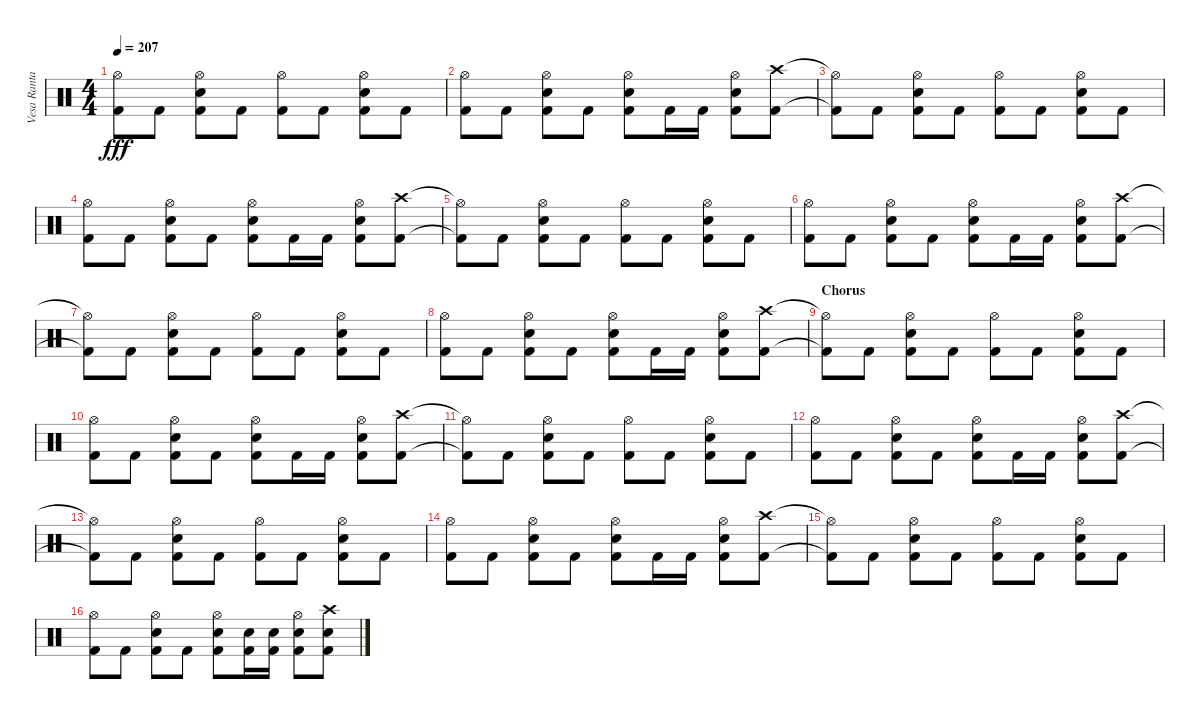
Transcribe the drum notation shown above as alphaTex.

\track ("Vesa Ranta" "Vesa Ranta") {instrument percussion}
\staff {score}
\articulation defaults
\ts (4 4)
\tempo 207
\clef neutral
\ks c
("Hi-Hat (open)"{t} "Kick (hit) 2"{t}).8{dy fff} "Kick (hit) 2".8 ("Hi-Hat (open)" "Snare (hit) 2" "Kick (hit) 2").8 "Kick (hit) 2".8 ("Hi-Hat (open)" "Kick (hit) 2").8 "Kick (hit) 2".8 ("Hi-Hat (open)" "Snare (hit) 2" "Kick (hit) 2").8 "Kick (hit) 2".8 |
("Hi-Hat (open)" "Kick (hit) 2").8 "Kick (hit) 2".8 ("Hi-Hat (open)" "Snare (hit) 2" "Kick (hit) 2").8 "Kick (hit) 2".8 ("Hi-Hat (open)" "Snare (hit) 2" "Kick (hit) 2").8 "Kick (hit) 2".16 "Kick (hit) 2".16 ("Hi-Hat (open)" "Snare (hit) 2" "Kick (hit) 2").8 ("Crash high (hit)" "Kick (hit) 2").8 |
("Hi-Hat (open)"{t} "Kick (hit) 2"{t}).8 "Kick (hit) 2".8 ("Hi-Hat (open)" "Snare (hit) 2" "Kick (hit) 2").8 "Kick (hit) 2".8 ("Hi-Hat (open)" "Kick (hit) 2").8 "Kick (hit) 2".8 ("Hi-Hat (open)" "Snare (hit) 2" "Kick (hit) 2").8 "Kick (hit) 2".8 |
("Hi-Hat (open)" "Kick (hit) 2").8 "Kick (hit) 2".8 ("Hi-Hat (open)" "Snare (hit) 2" "Kick (hit) 2").8 "Kick (hit) 2".8 ("Hi-Hat (open)" "Snare (hit) 2" "Kick (hit) 2").8 "Kick (hit) 2".16 "Kick (hit) 2".16 ("Hi-Hat (open)" "Snare (hit) 2" "Kick (hit) 2").8 ("Crash high (hit)" "Kick (hit) 2").8 |
("Hi-Hat (open)"{t} "Kick (hit) 2"{t}).8 "Kick (hit) 2".8 ("Hi-Hat (open)" "Snare (hit) 2" "Kick (hit) 2").8 "Kick (hit) 2".8 ("Hi-Hat (open)" "Kick (hit) 2").8 "Kick (hit) 2".8 ("Hi-Hat (open)" "Snare (hit) 2" "Kick (hit) 2").8 "Kick (hit) 2".8 |
("Hi-Hat (open)" "Kick (hit) 2").8 "Kick (hit) 2".8 ("Hi-Hat (open)" "Snare (hit) 2" "Kick (hit) 2").8 "Kick (hit) 2".8 ("Hi-Hat (open)" "Snare (hit) 2" "Kick (hit) 2").8 "Kick (hit) 2".16 "Kick (hit) 2".16 ("Hi-Hat (open)" "Snare (hit) 2" "Kick (hit) 2").8 ("Crash high (hit)" "Kick (hit) 2").8 |
("Hi-Hat (open)"{t} "Kick (hit) 2"{t}).8 "Kick (hit) 2".8 ("Hi-Hat (open)" "Snare (hit) 2" "Kick (hit) 2").8 "Kick (hit) 2".8 ("Hi-Hat (open)" "Kick (hit) 2").8 "Kick (hit) 2".8 ("Hi-Hat (open)" "Snare (hit) 2" "Kick (hit) 2").8 "Kick (hit) 2".8 |
("Hi-Hat (open)" "Kick (hit) 2").8 "Kick (hit) 2".8 ("Hi-Hat (open)" "Snare (hit) 2" "Kick (hit) 2").8 "Kick (hit) 2".8 ("Hi-Hat (open)" "Snare (hit) 2" "Kick (hit) 2").8 "Kick (hit) 2".16 "Kick (hit) 2".16 ("Hi-Hat (open)" "Snare (hit) 2" "Kick (hit) 2").8 ("Crash high (hit)" "Kick (hit) 2").8 |
\section ("" "Chorus")
("Hi-Hat (open)"{t} "Kick (hit) 2"{t}).8 "Kick (hit) 2".8 ("Hi-Hat (open)" "Snare (hit) 2" "Kick (hit) 2").8 "Kick (hit) 2".8 ("Hi-Hat (open)" "Kick (hit) 2").8 "Kick (hit) 2".8 ("Hi-Hat (open)" "Snare (hit) 2" "Kick (hit) 2").8 "Kick (hit) 2".8 |
("Hi-Hat (open)" "Kick (hit) 2").8 "Kick (hit) 2".8 ("Hi-Hat (open)" "Snare (hit) 2" "Kick (hit) 2").8 "Kick (hit) 2".8 ("Hi-Hat (open)" "Snare (hit) 2" "Kick (hit) 2").8 "Kick (hit) 2".16 "Kick (hit) 2".16 ("Hi-Hat (open)" "Snare (hit) 2" "Kick (hit) 2").8 ("Crash high (hit)" "Kick (hit) 2").8 |
("Hi-Hat (open)"{t} "Kick (hit) 2"{t}).8 "Kick (hit) 2".8 ("Hi-Hat (open)" "Snare (hit) 2" "Kick (hit) 2").8 "Kick (hit) 2".8 ("Hi-Hat (open)" "Kick (hit) 2").8 "Kick (hit) 2".8 ("Hi-Hat (open)" "Snare (hit) 2" "Kick (hit) 2").8 "Kick (hit) 2".8 |
("Hi-Hat (open)" "Kick (hit) 2").8 "Kick (hit) 2".8 ("Hi-Hat (open)" "Snare (hit) 2" "Kick (hit) 2").8 "Kick (hit) 2".8 ("Hi-Hat (open)" "Snare (hit) 2" "Kick (hit) 2").8 "Kick (hit) 2".16 "Kick (hit) 2".16 ("Hi-Hat (open)" "Snare (hit) 2" "Kick (hit) 2").8 ("Crash high (hit)" "Kick (hit) 2").8 |
("Hi-Hat (open)"{t} "Kick (hit) 2"{t}).8 "Kick (hit) 2".8 ("Hi-Hat (open)" "Snare (hit) 2" "Kick (hit) 2").8 "Kick (hit) 2".8 ("Hi-Hat (open)" "Kick (hit) 2").8 "Kick (hit) 2".8 ("Hi-Hat (open)" "Snare (hit) 2" "Kick (hit) 2").8 "Kick (hit) 2".8 |
("Hi-Hat (open)" "Kick (hit) 2").8 "Kick (hit) 2".8 ("Hi-Hat (open)" "Snare (hit) 2" "Kick (hit) 2").8 "Kick (hit) 2".8 ("Hi-Hat (open)" "Snare (hit) 2" "Kick (hit) 2").8 "Kick (hit) 2".16 "Kick (hit) 2".16 ("Hi-Hat (open)" "Snare (hit) 2" "Kick (hit) 2").8 ("Crash high (hit)" "Kick (hit) 2").8 |
("Hi-Hat (open)"{t} "Kick (hit) 2"{t}).8 "Kick (hit) 2".8 ("Hi-Hat (open)" "Snare (hit) 2" "Kick (hit) 2").8 "Kick (hit) 2".8 ("Hi-Hat (open)" "Kick (hit) 2").8 "Kick (hit) 2".8 ("Hi-Hat (open)" "Snare (hit) 2" "Kick (hit) 2").8 "Kick (hit) 2".8 |
("Hi-Hat (open)" "Kick (hit) 2").8 "Kick (hit) 2".8 ("Hi-Hat (open)" "Snare (hit) 2" "Kick (hit) 2").8 "Kick (hit) 2".8 ("Hi-Hat (open)" "Snare (hit) 2" "Kick (hit) 2").8 ("Snare (hit) 2" "Kick (hit) 2").16 ("Snare (hit) 2" "Kick (hit) 2").16 ("Hi-Hat (open)" "Snare (hit) 2" "Kick (hit) 2").8 ("Crash high (hit)" "Snare (hit) 2" "Kick (hit) 2").8
